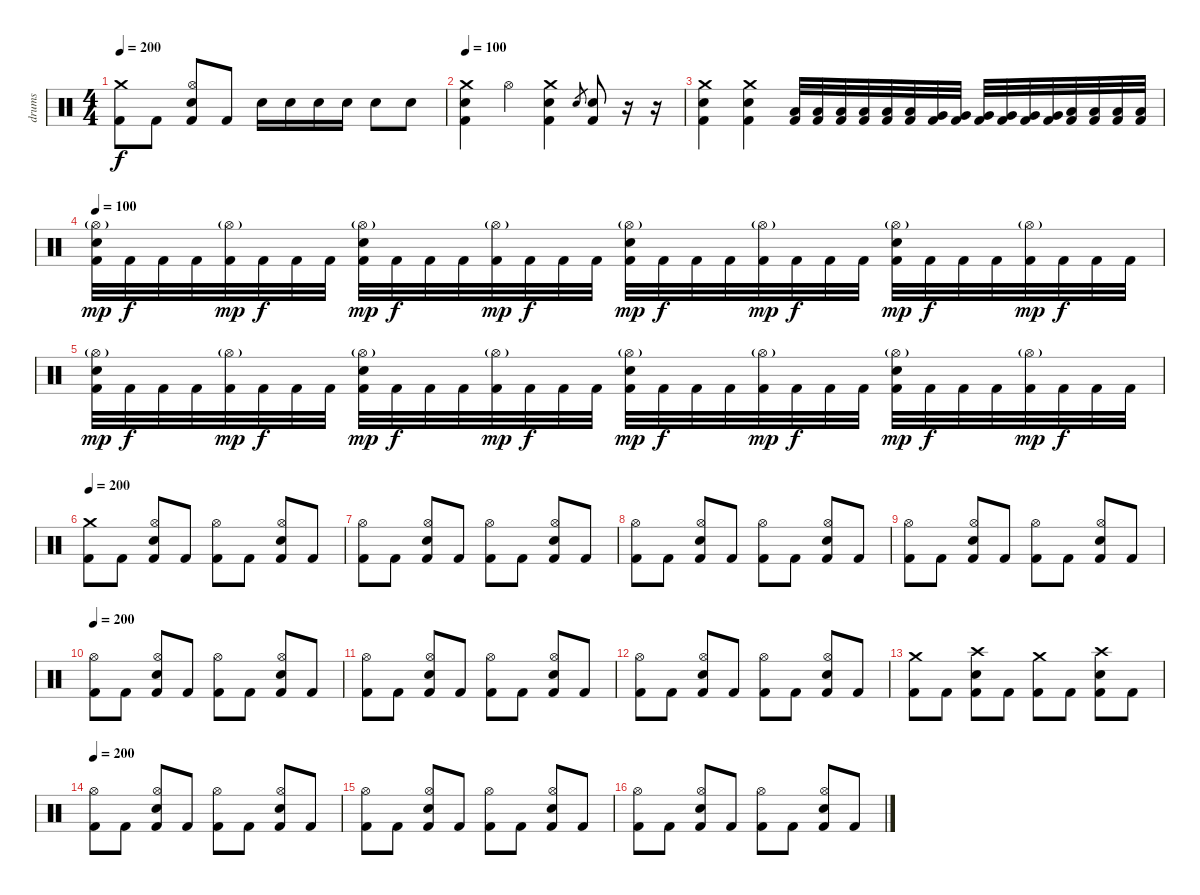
\track ("drums" "drums") {instrument percussion}
\staff {score}
\articulation defaults
\ts (4 4)
\tempo 200
\clef neutral
\ks c
("Crash medium (hit)" "Kick (hit) 2").8{dy f} "Kick (hit) 2".8 ("Hi-Hat (open)" "Electric Snare (hit)" "Kick (hit) 2").8 "Kick (hit) 2".8 "Electric Snare (hit)".16 "Electric Snare (hit)".16 "Electric Snare (hit)".16 "Electric Snare (hit)".16 "Electric Snare (hit)".8 "Electric Snare (hit)".8 |
\tempo 100
("Crash medium (hit)" "Electric Snare (hit)" "Kick (hit) 2").4 "Hi-Hat (open)".4 ("Crash medium (hit)" "Electric Snare (hit)" "Kick (hit) 2").4 "Electric Snare (hit)".8{gr} ("Electric Snare (hit)" "Kick (hit) 2").8 r.16 r.16 |
("Crash medium (hit)" "Electric Snare (hit)" "Kick (hit) 2").4 ("Crash medium (hit)" "Electric Snare (hit)" "Kick (hit) 2").4 ("Low Tom (hit)" "Kick (hit) 2").32 ("Low Tom (hit)" "Kick (hit) 2").32 ("Low Tom (hit)" "Kick (hit) 2").32 ("Low Tom (hit)" "Kick (hit) 2").32 ("Low Tom (hit)" "Kick (hit) 2").32 ("Low Tom (hit)" "Kick (hit) 2").32 ("Very Low Tom (hit)" "Kick (hit) 2").32 ("Very Low Tom (hit)" "Kick (hit) 2").32 ("Very Low Tom (hit)" "Kick (hit) 2").32 ("Very Low Tom (hit)" "Kick (hit) 2").32 ("Very Low Tom (hit)" "Kick (hit) 2").32 ("Very Low Tom (hit)" "Kick (hit) 2").32 ("Low Floor Tom (hit)" "Kick (hit) 2").32 ("Low Floor Tom (hit)" "Kick (hit) 2").32 ("Low Floor Tom (hit)" "Kick (hit) 2").32 ("Low Floor Tom (hit)" "Kick (hit) 2").32 |
\tempo 100
("Hi-Hat (open)"{g} "Electric Snare (hit)" "Kick (hit) 2").32{dy mp} "Kick (hit) 2".32{dy f} "Kick (hit) 2".32 "Kick (hit) 2".32 ("Hi-Hat (open)"{g} "Kick (hit) 2").32{dy mp} "Kick (hit) 2".32{dy f} "Kick (hit) 2".32 "Kick (hit) 2".32 ("Hi-Hat (open)"{g} "Electric Snare (hit)" "Kick (hit) 2").32{dy mp} "Kick (hit) 2".32{dy f} "Kick (hit) 2".32 "Kick (hit) 2".32 ("Hi-Hat (open)"{g} "Kick (hit) 2").32{dy mp} "Kick (hit) 2".32{dy f} "Kick (hit) 2".32 "Kick (hit) 2".32 ("Hi-Hat (open)"{g} "Electric Snare (hit)" "Kick (hit) 2").32{dy mp} "Kick (hit) 2".32{dy f} "Kick (hit) 2".32 "Kick (hit) 2".32 ("Hi-Hat (open)"{g} "Kick (hit) 2").32{dy mp} "Kick (hit) 2".32{dy f} "Kick (hit) 2".32 "Kick (hit) 2".32 ("Hi-Hat (open)"{g} "Electric Snare (hit)" "Kick (hit) 2").32{dy mp} "Kick (hit) 2".32{dy f} "Kick (hit) 2".32 "Kick (hit) 2".32 ("Hi-Hat (open)"{g} "Kick (hit) 2").32{dy mp} "Kick (hit) 2".32{dy f} "Kick (hit) 2".32 "Kick (hit) 2".32 |
("Hi-Hat (open)"{g} "Electric Snare (hit)" "Kick (hit) 2").32{dy mp} "Kick (hit) 2".32{dy f} "Kick (hit) 2".32 "Kick (hit) 2".32 ("Hi-Hat (open)"{g} "Kick (hit) 2").32{dy mp} "Kick (hit) 2".32{dy f} "Kick (hit) 2".32 "Kick (hit) 2".32 ("Hi-Hat (open)"{g} "Electric Snare (hit)" "Kick (hit) 2").32{dy mp} "Kick (hit) 2".32{dy f} "Kick (hit) 2".32 "Kick (hit) 2".32 ("Hi-Hat (open)"{g} "Kick (hit) 2").32{dy mp} "Kick (hit) 2".32{dy f} "Kick (hit) 2".32 "Kick (hit) 2".32 ("Hi-Hat (open)"{g} "Electric Snare (hit)" "Kick (hit) 2").32{dy mp} "Kick (hit) 2".32{dy f} "Kick (hit) 2".32 "Kick (hit) 2".32 ("Hi-Hat (open)"{g} "Kick (hit) 2").32{dy mp} "Kick (hit) 2".32{dy f} "Kick (hit) 2".32 "Kick (hit) 2".32 ("Hi-Hat (open)"{g} "Electric Snare (hit)" "Kick (hit) 2").32{dy mp} "Kick (hit) 2".32{dy f} "Kick (hit) 2".32 "Kick (hit) 2".32 ("Hi-Hat (open)"{g} "Kick (hit) 2").32{dy mp} "Kick (hit) 2".32{dy f} "Kick (hit) 2".32 "Kick (hit) 2".32 |
\tempo 200
("Crash medium (hit)" "Kick (hit) 2").8 "Kick (hit) 2".8 ("Hi-Hat (open)" "Electric Snare (hit)" "Kick (hit) 2").8 "Kick (hit) 2".8 ("Hi-Hat (open)" "Kick (hit) 2").8 "Kick (hit) 2".8 ("Hi-Hat (open)" "Electric Snare (hit)" "Kick (hit) 2").8 "Kick (hit) 2".8 |
("Hi-Hat (open)" "Kick (hit) 2").8 "Kick (hit) 2".8 ("Hi-Hat (open)" "Electric Snare (hit)" "Kick (hit) 2").8 "Kick (hit) 2".8 ("Hi-Hat (open)" "Kick (hit) 2").8 "Kick (hit) 2".8 ("Hi-Hat (open)" "Electric Snare (hit)" "Kick (hit) 2").8 "Kick (hit) 2".8 |
("Hi-Hat (open)" "Kick (hit) 2").8 "Kick (hit) 2".8 ("Hi-Hat (open)" "Electric Snare (hit)" "Kick (hit) 2").8 "Kick (hit) 2".8 ("Hi-Hat (open)" "Kick (hit) 2").8 "Kick (hit) 2".8 ("Hi-Hat (open)" "Electric Snare (hit)" "Kick (hit) 2").8 "Kick (hit) 2".8 |
("Hi-Hat (open)" "Kick (hit) 2").8 "Kick (hit) 2".8 ("Hi-Hat (open)" "Electric Snare (hit)" "Kick (hit) 2").8 "Kick (hit) 2".8 ("Hi-Hat (open)" "Kick (hit) 2").8 "Kick (hit) 2".8 ("Hi-Hat (open)" "Electric Snare (hit)" "Kick (hit) 2").8 "Kick (hit) 2".8 |
\tempo 200
("Hi-Hat (open)" "Kick (hit) 2").8 "Kick (hit) 2".8 ("Hi-Hat (open)" "Electric Snare (hit)" "Kick (hit) 2").8 "Kick (hit) 2".8 ("Hi-Hat (open)" "Kick (hit) 2").8 "Kick (hit) 2".8 ("Hi-Hat (open)" "Electric Snare (hit)" "Kick (hit) 2").8 "Kick (hit) 2".8 |
("Hi-Hat (open)" "Kick (hit) 2").8 "Kick (hit) 2".8 ("Hi-Hat (open)" "Electric Snare (hit)" "Kick (hit) 2").8 "Kick (hit) 2".8 ("Hi-Hat (open)" "Kick (hit) 2").8 "Kick (hit) 2".8 ("Hi-Hat (open)" "Electric Snare (hit)" "Kick (hit) 2").8 "Kick (hit) 2".8 |
("Hi-Hat (open)" "Kick (hit) 2").8 "Kick (hit) 2".8 ("Hi-Hat (open)" "Electric Snare (hit)" "Kick (hit) 2").8 "Kick (hit) 2".8 ("Hi-Hat (open)" "Kick (hit) 2").8 "Kick (hit) 2".8 ("Hi-Hat (open)" "Electric Snare (hit)" "Kick (hit) 2").8 "Kick (hit) 2".8 |
("Crash medium (hit)" "Kick (hit) 2").8 "Kick (hit) 2".8 ("Crash high (hit)" "Electric Snare (hit)" "Kick (hit) 2").8 "Kick (hit) 2".8 ("Crash medium (hit)" "Kick (hit) 2").8 "Kick (hit) 2".8 ("Crash high (hit)" "Electric Snare (hit)" "Kick (hit) 2").8 "Kick (hit) 2".8 |
\tempo 200
("Hi-Hat (open)" "Kick (hit) 2").8 "Kick (hit) 2".8 ("Hi-Hat (open)" "Electric Snare (hit)" "Kick (hit) 2").8 "Kick (hit) 2".8 ("Hi-Hat (open)" "Kick (hit) 2").8 "Kick (hit) 2".8 ("Hi-Hat (open)" "Electric Snare (hit)" "Kick (hit) 2").8 "Kick (hit) 2".8 |
("Hi-Hat (open)" "Kick (hit) 2").8 "Kick (hit) 2".8 ("Hi-Hat (open)" "Electric Snare (hit)" "Kick (hit) 2").8 "Kick (hit) 2".8 ("Hi-Hat (open)" "Kick (hit) 2").8 "Kick (hit) 2".8 ("Hi-Hat (open)" "Electric Snare (hit)" "Kick (hit) 2").8 "Kick (hit) 2".8 |
("Hi-Hat (open)" "Kick (hit) 2").8 "Kick (hit) 2".8 ("Hi-Hat (open)" "Electric Snare (hit)" "Kick (hit) 2").8 "Kick (hit) 2".8 ("Hi-Hat (open)" "Kick (hit) 2").8 "Kick (hit) 2".8 ("Hi-Hat (open)" "Electric Snare (hit)" "Kick (hit) 2").8 "Kick (hit) 2".8
